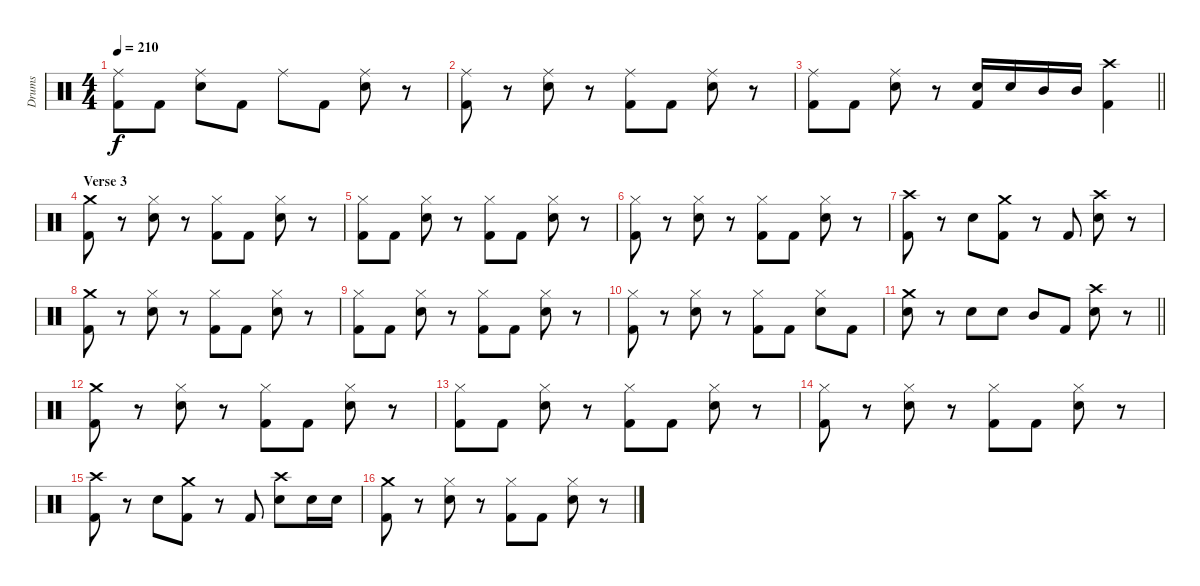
\track ("Drums" "Drums") {instrument percussion}
\staff {score}
\articulation defaults
\ts (4 4)
\tempo 210
\clef neutral
\ks c
("Ride (middle)" "Kick (hit) 2").8{dy f} "Kick (hit) 2".8 ("Ride (middle)" "Electric Snare (hit)").8 "Kick (hit) 2".8 "Ride (middle)".8 "Kick (hit) 2".8 ("Ride (middle)" "Electric Snare (hit)").8 r.8 |
("Ride (middle)" "Kick (hit) 2").8 r.8 ("Ride (middle)" "Electric Snare (hit)").8 r.8 ("Ride (middle)" "Kick (hit) 2").8 "Kick (hit) 2".8 ("Ride (middle)" "Electric Snare (hit)").8 r.8 |
\barLineRight lightlight
("Ride (middle)" "Kick (hit) 2").8 "Kick (hit) 2".8 ("Ride (middle)" "Electric Snare (hit)").8 r.8 ("Electric Snare (hit)" "Kick (hit) 2").16 "Electric Snare (hit)".16 "Mid Tom (hit)".16 "Mid Tom (hit)".16 ("Crash high (hit)" "Kick (hit) 2").4 |
\section ("" "Verse 3")
("Crash medium (hit)" "Kick (hit) 2").8 r.8 ("Hi-Hat (closed)" "Electric Snare (hit)").8 r.8 ("Hi-Hat (closed)" "Kick (hit) 2").8 "Kick (hit) 2".8 ("Hi-Hat (closed)" "Electric Snare (hit)").8 r.8 |
("Hi-Hat (closed)" "Kick (hit) 2").8 "Kick (hit) 2".8 ("Hi-Hat (closed)" "Electric Snare (hit)").8 r.8 ("Hi-Hat (closed)" "Kick (hit) 2").8 "Kick (hit) 2".8 ("Hi-Hat (closed)" "Electric Snare (hit)").8 r.8 |
("Hi-Hat (closed)" "Kick (hit) 2").8 r.8 ("Hi-Hat (closed)" "Electric Snare (hit)").8 r.8 ("Hi-Hat (closed)" "Kick (hit) 2").8 "Kick (hit) 2".8 ("Hi-Hat (closed)" "Electric Snare (hit)").8 r.8 |
("Crash high (hit)" "Kick (hit) 2").8 r.8 "Electric Snare (hit)".8 ("Crash medium (hit)" "Kick (hit) 2").8 r.8 "Kick (hit) 2".8 ("Crash high (hit)" "Electric Snare (hit)").8 r.8 |
("Crash medium (hit)" "Kick (hit) 2").8 r.8 ("Hi-Hat (closed)" "Electric Snare (hit)").8 r.8 ("Hi-Hat (closed)" "Kick (hit) 2").8 "Kick (hit) 2".8 ("Hi-Hat (closed)" "Electric Snare (hit)").8 r.8 |
("Hi-Hat (closed)" "Kick (hit) 2").8 "Kick (hit) 2".8 ("Hi-Hat (closed)" "Electric Snare (hit)").8 r.8 ("Hi-Hat (closed)" "Kick (hit) 2").8 "Kick (hit) 2".8 ("Hi-Hat (closed)" "Electric Snare (hit)").8 r.8 |
("Hi-Hat (closed)" "Kick (hit) 2").8 r.8 ("Hi-Hat (closed)" "Electric Snare (hit)").8 r.8 ("Hi-Hat (closed)" "Kick (hit) 2").8 "Kick (hit) 2".8 ("Hi-Hat (closed)" "Electric Snare (hit)").8 "Kick (hit) 2".8 |
\barLineRight lightlight
("Crash medium (hit)" "Electric Snare (hit)").8 r.8 "Electric Snare (hit)".8 "Electric Snare (hit)".8 "Mid Tom (hit)".8 "Kick (hit) 2".8 ("Crash high (hit)" "Electric Snare (hit)").8 r.8 |
\section ("" "")
("Crash medium (hit)" "Kick (hit) 2").8 r.8 ("Hi-Hat (closed)" "Electric Snare (hit)").8 r.8 ("Hi-Hat (closed)" "Kick (hit) 2").8 "Kick (hit) 2".8 ("Hi-Hat (closed)" "Electric Snare (hit)").8 r.8 |
("Hi-Hat (closed)" "Kick (hit) 2").8 "Kick (hit) 2".8 ("Hi-Hat (closed)" "Electric Snare (hit)").8 r.8 ("Hi-Hat (closed)" "Kick (hit) 2").8 "Kick (hit) 2".8 ("Hi-Hat (closed)" "Electric Snare (hit)").8 r.8 |
("Hi-Hat (closed)" "Kick (hit) 2").8 r.8 ("Hi-Hat (closed)" "Electric Snare (hit)").8 r.8 ("Hi-Hat (closed)" "Kick (hit) 2").8 "Kick (hit) 2".8 ("Hi-Hat (closed)" "Electric Snare (hit)").8 r.8 |
("Crash high (hit)" "Kick (hit) 2").8 r.8 "Electric Snare (hit)".8 ("Crash medium (hit)" "Kick (hit) 2").8 r.8 "Kick (hit) 2".8 ("Crash high (hit)" "Electric Snare (hit)").8 "Electric Snare (hit)".16 "Electric Snare (hit)".16 |
("Crash medium (hit)" "Kick (hit) 2").8 r.8 ("Hi-Hat (closed)" "Electric Snare (hit)").8 r.8 ("Hi-Hat (closed)" "Kick (hit) 2").8 "Kick (hit) 2".8 ("Hi-Hat (closed)" "Electric Snare (hit)").8 r.8
